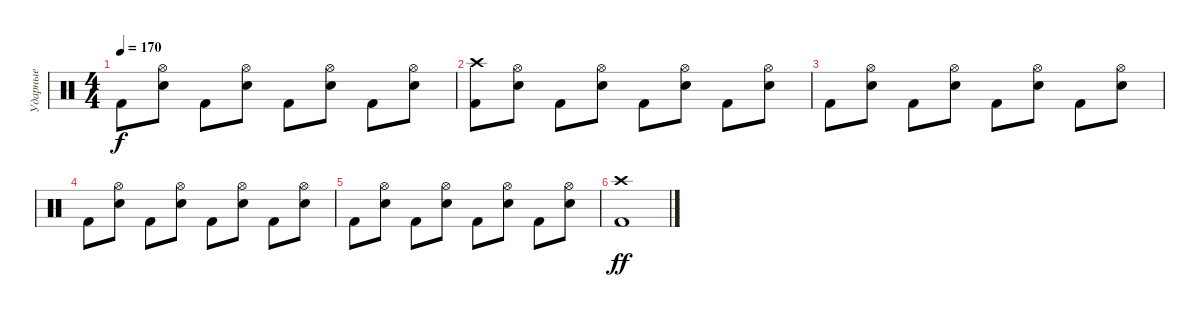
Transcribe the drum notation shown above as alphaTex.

\track ("Ударные" "Ударные") {instrument percussion}
\staff {score}
\articulation defaults
\ts (4 4)
\tempo 170
\clef neutral
\ks c "Kick (hit) 2".8{dy f}
("Hi-Hat (open)" "Electric Snare (hit)").8 "Kick (hit) 2".8 ("Hi-Hat (open)" "Electric Snare (hit)").8 "Kick (hit) 2".8 ("Hi-Hat (open)" "Electric Snare (hit)").8 "Kick (hit) 2".8 ("Hi-Hat (open)" "Electric Snare (hit)").8 |
("Kick (hit) 2" "Crash high (hit)").8 ("Hi-Hat (open)" "Electric Snare (hit)").8 "Kick (hit) 2".8 ("Hi-Hat (open)" "Electric Snare (hit)").8 "Kick (hit) 2".8 ("Hi-Hat (open)" "Electric Snare (hit)").8 "Kick (hit) 2".8 ("Hi-Hat (open)" "Electric Snare (hit)").8 |
"Kick (hit) 2".8 ("Hi-Hat (open)" "Electric Snare (hit)").8 "Kick (hit) 2".8 ("Hi-Hat (open)" "Electric Snare (hit)").8 "Kick (hit) 2".8 ("Hi-Hat (open)" "Electric Snare (hit)").8 "Kick (hit) 2".8 ("Hi-Hat (open)" "Electric Snare (hit)").8 |
"Kick (hit) 2".8 ("Hi-Hat (open)" "Electric Snare (hit)").8 "Kick (hit) 2".8 ("Hi-Hat (open)" "Electric Snare (hit)").8 "Kick (hit) 2".8 ("Hi-Hat (open)" "Electric Snare (hit)").8 "Kick (hit) 2".8 ("Hi-Hat (open)" "Electric Snare (hit)").8 |
"Kick (hit) 2".8 ("Hi-Hat (open)" "Electric Snare (hit)").8 "Kick (hit) 2".8 ("Hi-Hat (open)" "Electric Snare (hit)").8 "Kick (hit) 2".8 ("Hi-Hat (open)" "Electric Snare (hit)").8 "Kick (hit) 2".8 ("Hi-Hat (open)" "Electric Snare (hit)").8 |
("Kick (hit) 2" "Crash high (hit)").1{dy ff}
